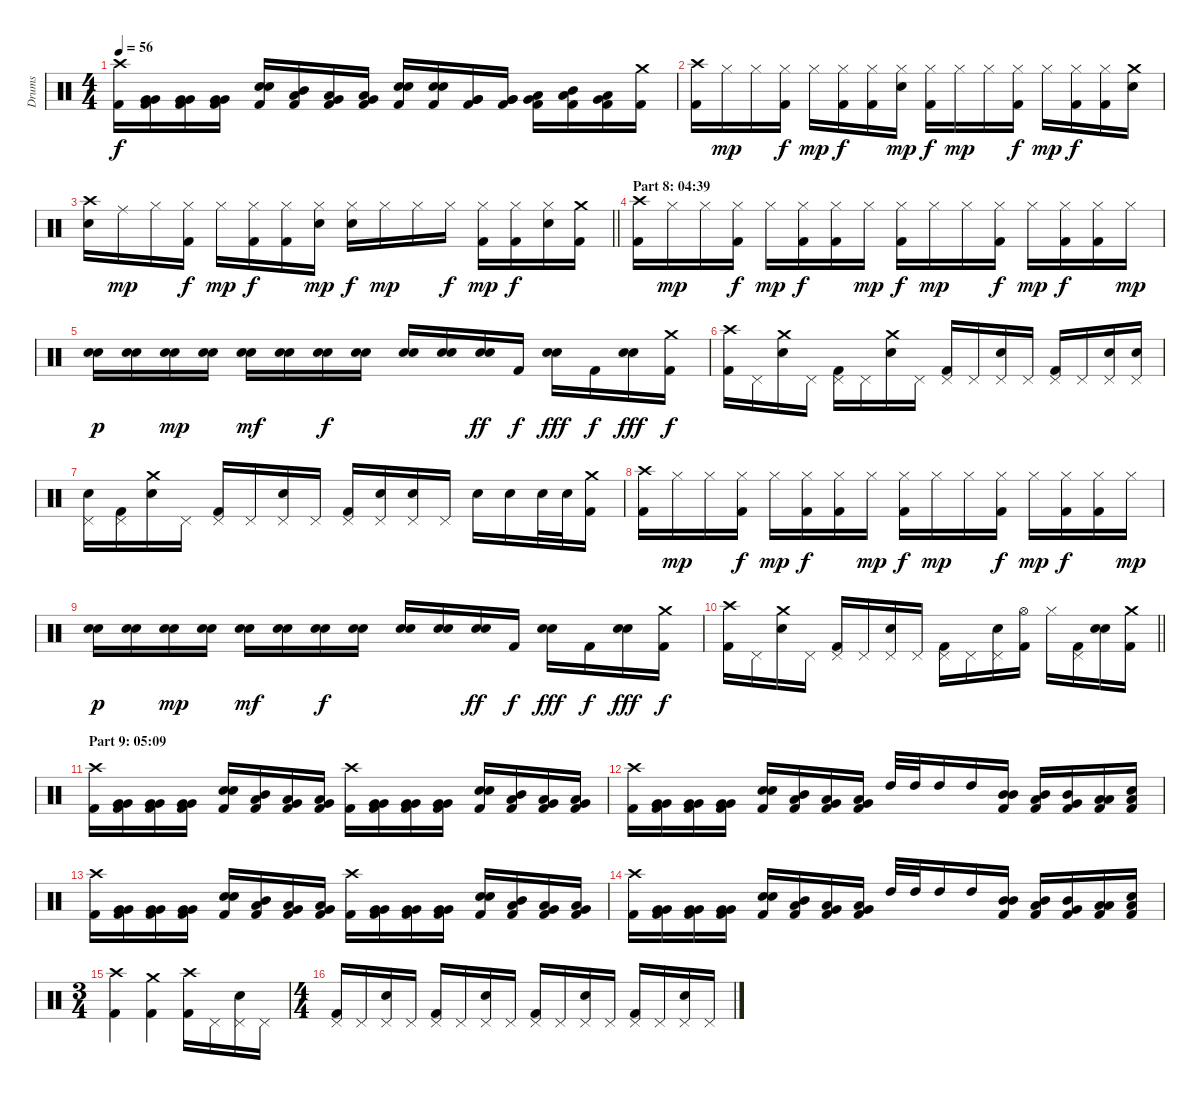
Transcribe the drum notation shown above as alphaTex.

\track ("Drums" "Drums") {instrument percussion}
\staff {score}
\articulation defaults
\ts (4 4)
\tempo 56
\clef neutral
\ks c
("Crash high (hit)" "Kick (hit) 2").16{dy f} ("Very Low Tom (hit)" "Very Low Tom (hit)" "Kick (hit) 2").16 ("Very Low Tom (hit)" "Very Low Tom (hit)" "Kick (hit) 2").16 ("Very Low Tom (hit)" "Very Low Tom (hit)" "Kick (hit) 2").16 ("Electric Snare (hit)" "Electric Snare (hit)" "Kick (hit) 2").16{bd 30} ("Mid Tom (hit)" "Low Tom (hit)" "Kick (hit) 2").16 ("Low Tom (hit)" "Very Low Tom (hit)" "Kick (hit) 2").16 ("Low Tom (hit)" "Very Low Tom (hit)" "Kick (hit) 2").16 ("Electric Snare (hit)" "Electric Snare (hit)" "Kick (hit) 2").16 ("Electric Snare (hit)" "Electric Snare (hit)" "Kick (hit) 2").16 ("Very Low Tom (hit)" "Very Low Tom (hit)" "Kick (hit) 2").16 ("Very Low Tom (hit)" "Very Low Tom (hit)" "Kick (hit) 2").16 ("Very Low Tom (hit)" "Low Floor Tom (hit)" "Kick (hit) 2").16 ("Mid Tom (hit)" "Low Tom (hit)" "Kick (hit) 2").16 ("Low Tom (hit)" "Very Low Tom (hit)" "Kick (hit) 2").16 ("Crash medium (hit)" "Kick (hit) 2").16 |
("Crash high (hit)" "Kick (hit) 2").16 "Hi-Hat (closed)".16{dy mp} "Hi-Hat (closed)".16 ("Hi-Hat (closed)" "Kick (hit) 2").16{dy f} "Hi-Hat (closed)".16{dy mp} ("Hi-Hat (closed)" "Kick (hit) 2").16{dy f} ("Hi-Hat (closed)" "Kick (hit) 2").16 ("Hi-Hat (closed)" "Electric Snare (hit)").16{dy mp} ("Hi-Hat (closed)" "Kick (hit) 2").16{dy f} "Hi-Hat (closed)".16{dy mp} "Hi-Hat (closed)".16 ("Hi-Hat (closed)" "Kick (hit) 2").16{dy f} "Hi-Hat (closed)".16{dy mp} ("Hi-Hat (closed)" "Kick (hit) 2").16{dy f} ("Hi-Hat (closed)" "Kick (hit) 2").16 ("Crash medium (hit)" "Electric Snare (hit)").16 |
\barLineRight lightlight
("Crash high (hit)" "Electric Snare (hit)").16 "Ride (middle)".16{dy mp} "Hi-Hat (closed)".16 ("Hi-Hat (closed)" "Kick (hit) 2").16{dy f} "Hi-Hat (closed)".16{dy mp} ("Hi-Hat (closed)" "Kick (hit) 2").16{dy f} ("Hi-Hat (closed)" "Kick (hit) 2").16 ("Hi-Hat (closed)" "Electric Snare (hit)").16{dy mp} ("Hi-Hat (closed)" "Electric Snare (hit)").16{dy f} "Hi-Hat (closed)".16{dy mp} "Hi-Hat (closed)".16 "Hi-Hat (closed)".16{dy f} ("Hi-Hat (closed)" "Kick (hit) 2").16{dy mp} ("Hi-Hat (closed)" "Kick (hit) 2").16{dy f} ("Hi-Hat (closed)" "Electric Snare (hit)").16 ("Crash medium (hit)" "Kick (hit) 2").16 |
\section ("" "Part 8: 04:39")
("Crash high (hit)" "Kick (hit) 2").16 "Hi-Hat (closed)".16{dy mp} "Hi-Hat (closed)".16 ("Hi-Hat (closed)" "Kick (hit) 2").16{dy f} "Hi-Hat (closed)".16{dy mp} ("Hi-Hat (closed)" "Kick (hit) 2").16{dy f} ("Hi-Hat (closed)" "Kick (hit) 2").16 "Hi-Hat (closed)".16{dy mp} ("Hi-Hat (closed)" "Kick (hit) 2").16{dy f} "Hi-Hat (closed)".16{dy mp} "Hi-Hat (closed)".16 ("Hi-Hat (closed)" "Kick (hit) 2").16{dy f} "Hi-Hat (closed)".16{dy mp} ("Hi-Hat (closed)" "Kick (hit) 2").16{dy f} ("Hi-Hat (closed)" "Kick (hit) 2").16 "Hi-Hat (closed)".16{dy mp} |
("Electric Snare (hit)" "Electric Snare (hit)").16{dy p} ("Electric Snare (hit)" "Electric Snare (hit)").16 ("Electric Snare (hit)" "Electric Snare (hit)").16{dy mp} ("Electric Snare (hit)" "Electric Snare (hit)").16 ("Electric Snare (hit)" "Electric Snare (hit)").16{dy mf} ("Electric Snare (hit)" "Electric Snare (hit)").16 ("Electric Snare (hit)" "Electric Snare (hit)").16{dy f} ("Electric Snare (hit)" "Electric Snare (hit)").16 ("Electric Snare (hit)" "Electric Snare (hit)").16 ("Electric Snare (hit)" "Electric Snare (hit)").16 ("Electric Snare (hit)" "Electric Snare (hit)").16{dy ff} "Kick (hit) 2".16{dy f} ("Electric Snare (hit)" "Electric Snare (hit)").16{bd 30 dy fff} "Kick (hit) 2".16{dy f} ("Electric Snare (hit)" "Electric Snare (hit)").16{bd 30 dy fff} ("Crash medium (hit)" "Kick (hit) 2").16{dy f} |
("Crash high (hit)" "Kick (hit) 2").16 "Pedal Hi-Hat (hit)".16 ("Crash medium (hit)" "Electric Snare (hit)").16 "Pedal Hi-Hat (hit)".16 ("Pedal Hi-Hat (hit)" "Kick (hit) 2").16 "Pedal Hi-Hat (hit)".16 ("Crash medium (hit)" "Electric Snare (hit)").16 "Pedal Hi-Hat (hit)".16 ("Pedal Hi-Hat (hit)" "Kick (hit) 2").16 "Pedal Hi-Hat (hit)".16 ("Pedal Hi-Hat (hit)" "Electric Snare (hit)").16 "Pedal Hi-Hat (hit)".16 ("Pedal Hi-Hat (hit)" "Kick (hit) 2").16 "Pedal Hi-Hat (hit)".16 ("Pedal Hi-Hat (hit)" "Electric Snare (hit)").16 ("Pedal Hi-Hat (hit)" "Electric Snare (hit)").16 |
("Pedal Hi-Hat (hit)" "Electric Snare (hit)").16 ("Pedal Hi-Hat (hit)" "Kick (hit) 2").16 ("Crash medium (hit)" "Electric Snare (hit)").16 "Pedal Hi-Hat (hit)".16 ("Pedal Hi-Hat (hit)" "Kick (hit) 2").16 "Pedal Hi-Hat (hit)".16 ("Pedal Hi-Hat (hit)" "Electric Snare (hit)").16 "Pedal Hi-Hat (hit)".16 ("Pedal Hi-Hat (hit)" "Kick (hit) 2").16 ("Pedal Hi-Hat (hit)" "Electric Snare (hit)").16 ("Pedal Hi-Hat (hit)" "Electric Snare (hit)").16 "Pedal Hi-Hat (hit)".16 "Electric Snare (hit)".16 "Electric Snare (hit)".16 "Electric Snare (hit)".32 "Electric Snare (hit)".32 ("Crash medium (hit)" "Kick (hit) 2").16 |
("Crash high (hit)" "Kick (hit) 2").16 "Hi-Hat (closed)".16{dy mp} "Hi-Hat (closed)".16 ("Hi-Hat (closed)" "Kick (hit) 2").16{dy f} "Hi-Hat (closed)".16{dy mp} ("Hi-Hat (closed)" "Kick (hit) 2").16{dy f} ("Hi-Hat (closed)" "Kick (hit) 2").16 "Hi-Hat (closed)".16{dy mp} ("Hi-Hat (closed)" "Kick (hit) 2").16{dy f} "Hi-Hat (closed)".16{dy mp} "Hi-Hat (closed)".16 ("Hi-Hat (closed)" "Kick (hit) 2").16{dy f} "Hi-Hat (closed)".16{dy mp} ("Hi-Hat (closed)" "Kick (hit) 2").16{dy f} ("Hi-Hat (closed)" "Kick (hit) 2").16 "Hi-Hat (closed)".16{dy mp} |
("Electric Snare (hit)" "Electric Snare (hit)").16{dy p} ("Electric Snare (hit)" "Electric Snare (hit)").16 ("Electric Snare (hit)" "Electric Snare (hit)").16{dy mp} ("Electric Snare (hit)" "Electric Snare (hit)").16 ("Electric Snare (hit)" "Electric Snare (hit)").16{dy mf} ("Electric Snare (hit)" "Electric Snare (hit)").16 ("Electric Snare (hit)" "Electric Snare (hit)").16{dy f} ("Electric Snare (hit)" "Electric Snare (hit)").16 ("Electric Snare (hit)" "Electric Snare (hit)").16 ("Electric Snare (hit)" "Electric Snare (hit)").16 ("Electric Snare (hit)" "Electric Snare (hit)").16{dy ff} "Kick (hit) 2".16{dy f} ("Electric Snare (hit)" "Electric Snare (hit)").16{bd 30 dy fff} "Kick (hit) 2".16{dy f} ("Electric Snare (hit)" "Electric Snare (hit)").16{bd 30 dy fff} ("Crash medium (hit)" "Kick (hit) 2").16{dy f} |
\barLineRight lightlight
("Crash high (hit)" "Kick (hit) 2").16 "Pedal Hi-Hat (hit)".16 ("Crash medium (hit)" "Electric Snare (hit)").16 "Pedal Hi-Hat (hit)".16 ("Pedal Hi-Hat (hit)" "Kick (hit) 2").16 "Pedal Hi-Hat (hit)".16 ("Pedal Hi-Hat (hit)" "Electric Snare (hit)").16 "Pedal Hi-Hat (hit)".16 ("Pedal Hi-Hat (hit)" "Kick (hit) 2").16 "Pedal Hi-Hat (hit)".16 ("Pedal Hi-Hat (hit)" "Electric Snare (hit)").16 ("Hi-Hat (open)" "Kick (hit) 2").16 "Hi-Hat (closed)".16 ("Pedal Hi-Hat (hit)" "Kick (hit) 2").16 ("Electric Snare (hit)" "Electric Snare (hit)").16{bd 30} ("Crash medium (hit)" "Kick (hit) 2").16 |
\section ("" "Part 9: 05:09")
("Crash high (hit)" "Kick (hit) 2").16 ("Very Low Tom (hit)" "Very Low Tom (hit)" "Kick (hit) 2").16 ("Very Low Tom (hit)" "Very Low Tom (hit)" "Kick (hit) 2").16 ("Very Low Tom (hit)" "Very Low Tom (hit)" "Kick (hit) 2").16 ("Electric Snare (hit)" "Electric Snare (hit)" "Kick (hit) 2").16{bd 30} ("Mid Tom (hit)" "Low Tom (hit)" "Kick (hit) 2").16 ("Low Tom (hit)" "Very Low Tom (hit)" "Kick (hit) 2").16 ("Low Tom (hit)" "Very Low Tom (hit)" "Kick (hit) 2").16 ("Crash high (hit)" "Kick (hit) 2").16 ("Very Low Tom (hit)" "Very Low Tom (hit)" "Kick (hit) 2").16 ("Very Low Tom (hit)" "Very Low Tom (hit)" "Kick (hit) 2").16 ("Very Low Tom (hit)" "Very Low Tom (hit)" "Kick (hit) 2").16 ("Electric Snare (hit)" "Electric Snare (hit)" "Kick (hit) 2").16{bd 30} ("Mid Tom (hit)" "Low Tom (hit)" "Kick (hit) 2").16 ("Low Tom (hit)" "Very Low Tom (hit)" "Kick (hit) 2").16 ("Low Tom (hit)" "Very Low Tom (hit)" "Kick (hit) 2").16 |
("Crash high (hit)" "Kick (hit) 2").16 ("Very Low Tom (hit)" "Very Low Tom (hit)" "Kick (hit) 2").16 ("Very Low Tom (hit)" "Very Low Tom (hit)" "Kick (hit) 2").16 ("Very Low Tom (hit)" "Very Low Tom (hit)" "Kick (hit) 2").16 ("Electric Snare (hit)" "Electric Snare (hit)" "Kick (hit) 2").16{bd 30} ("Mid Tom (hit)" "Low Tom (hit)" "Kick (hit) 2").16 ("Low Tom (hit)" "Very Low Tom (hit)" "Kick (hit) 2").16 ("Low Tom (hit)" "Very Low Tom (hit)" "Kick (hit) 2").16 "High Tom (hit)".32 "High Tom (hit)".32 "High Tom (hit)".16 "High Tom (hit)".16 ("Mid Tom (hit)" "Mid Tom (hit)" "Kick (hit) 2").16 ("Low Tom (hit)" "Mid Tom (hit)" "Kick (hit) 2").16 ("Very Low Tom (hit)" "Mid Tom (hit)" "Kick (hit) 2").16 ("Low Floor Tom (hit)" "Low Tom (hit)" "Kick (hit) 2").16 ("Low Floor Tom (hit)" "Electric Snare (hit)" "Kick (hit) 2").16 |
("Crash high (hit)" "Kick (hit) 2").16 ("Very Low Tom (hit)" "Very Low Tom (hit)" "Kick (hit) 2").16 ("Very Low Tom (hit)" "Very Low Tom (hit)" "Kick (hit) 2").16 ("Very Low Tom (hit)" "Very Low Tom (hit)" "Kick (hit) 2").16 ("Electric Snare (hit)" "Electric Snare (hit)" "Kick (hit) 2").16{bd 30} ("Mid Tom (hit)" "Low Tom (hit)" "Kick (hit) 2").16 ("Low Tom (hit)" "Very Low Tom (hit)" "Kick (hit) 2").16 ("Low Tom (hit)" "Very Low Tom (hit)" "Kick (hit) 2").16 ("Crash high (hit)" "Kick (hit) 2").16 ("Very Low Tom (hit)" "Very Low Tom (hit)" "Kick (hit) 2").16 ("Very Low Tom (hit)" "Very Low Tom (hit)" "Kick (hit) 2").16 ("Very Low Tom (hit)" "Very Low Tom (hit)" "Kick (hit) 2").16 ("Electric Snare (hit)" "Electric Snare (hit)" "Kick (hit) 2").16{bd 30} ("Mid Tom (hit)" "Low Tom (hit)" "Kick (hit) 2").16 ("Low Tom (hit)" "Very Low Tom (hit)" "Kick (hit) 2").16 ("Low Tom (hit)" "Very Low Tom (hit)" "Kick (hit) 2").16 |
("Crash high (hit)" "Kick (hit) 2").16 ("Very Low Tom (hit)" "Very Low Tom (hit)" "Kick (hit) 2").16 ("Very Low Tom (hit)" "Very Low Tom (hit)" "Kick (hit) 2").16 ("Very Low Tom (hit)" "Very Low Tom (hit)" "Kick (hit) 2").16 ("Electric Snare (hit)" "Electric Snare (hit)" "Kick (hit) 2").16{bd 30} ("Mid Tom (hit)" "Low Tom (hit)" "Kick (hit) 2").16 ("Low Tom (hit)" "Very Low Tom (hit)" "Kick (hit) 2").16 ("Low Tom (hit)" "Very Low Tom (hit)" "Kick (hit) 2").16 "High Tom (hit)".32 "High Tom (hit)".32 "High Tom (hit)".16 "High Tom (hit)".16 ("Mid Tom (hit)" "Mid Tom (hit)" "Kick (hit) 2").16 ("Low Tom (hit)" "Mid Tom (hit)" "Kick (hit) 2").16 ("Very Low Tom (hit)" "Mid Tom (hit)" "Kick (hit) 2").16 ("Low Floor Tom (hit)" "Low Tom (hit)" "Kick (hit) 2").16 ("Low Floor Tom (hit)" "Electric Snare (hit)" "Kick (hit) 2").16 |
\ts (3 4)
("Crash high (hit)" "Kick (hit) 2").4 ("Crash medium (hit)" "Kick (hit) 2").4 ("Crash high (hit)" "Kick (hit) 2").16 "Pedal Hi-Hat (hit)".16 ("Pedal Hi-Hat (hit)" "Electric Snare (hit)").16 "Pedal Hi-Hat (hit)".16 |
\ts (4 4)
("Pedal Hi-Hat (hit)" "Kick (hit) 2").16 "Pedal Hi-Hat (hit)".16 ("Pedal Hi-Hat (hit)" "Electric Snare (hit)").16 "Pedal Hi-Hat (hit)".16 ("Pedal Hi-Hat (hit)" "Kick (hit) 2").16 "Pedal Hi-Hat (hit)".16 ("Pedal Hi-Hat (hit)" "Electric Snare (hit)").16 "Pedal Hi-Hat (hit)".16 ("Pedal Hi-Hat (hit)" "Kick (hit) 2").16 "Pedal Hi-Hat (hit)".16 ("Pedal Hi-Hat (hit)" "Electric Snare (hit)").16 "Pedal Hi-Hat (hit)".16 ("Pedal Hi-Hat (hit)" "Kick (hit) 2").16 "Pedal Hi-Hat (hit)".16 ("Pedal Hi-Hat (hit)" "Electric Snare (hit)").16 "Pedal Hi-Hat (hit)".16
